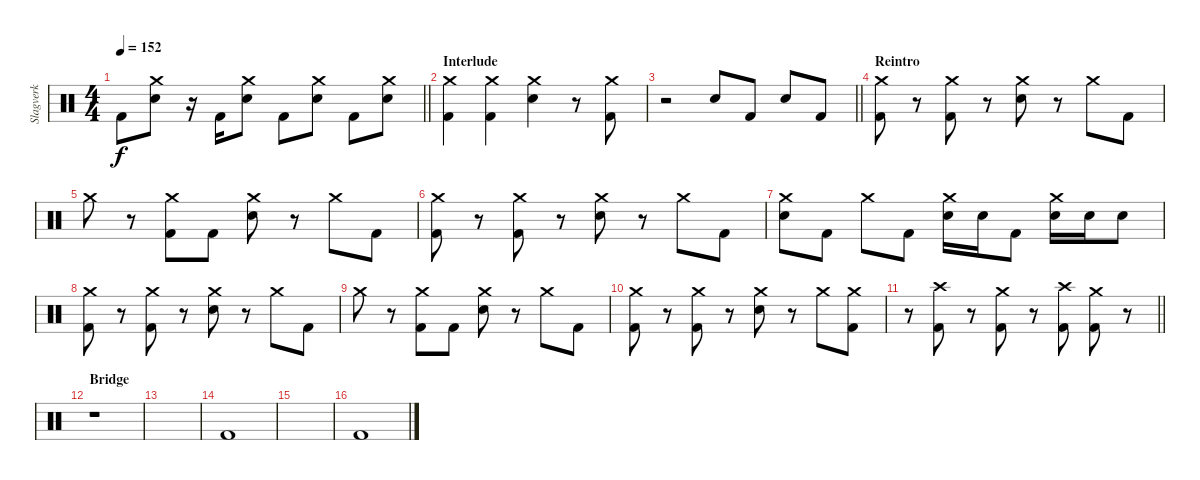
\track ("Slagverk" "Slagverk") {instrument percussion}
\staff
\articulation defaults
\ts (4 4)
\tempo 152
\clef neutral
\barLineRight lightlight
\ks c "Kick (hit) 2".8{dy f}
("Crash medium (hit)" "Electric Snare (hit)").8 r.16 "Kick (hit) 2".16 ("Crash medium (hit)" "Electric Snare (hit)").8 "Kick (hit) 2".8 ("Crash medium (hit)" "Electric Snare (hit)").8 "Kick (hit) 2".8 ("Crash medium (hit)" "Electric Snare (hit)").8 |
\section ("" "Interlude")
("Crash medium (hit)" "Kick (hit) 2").4 ("Crash medium (hit)" "Kick (hit) 2").4 ("Crash medium (hit)" "Electric Snare (hit)").4 r.8 ("Crash medium (hit)" "Kick (hit) 2").8 |
\barLineRight lightlight
r.2 "Electric Snare (hit)".8 "Kick (hit) 2".8 "Electric Snare (hit)".8 "Kick (hit) 2".8 |
\section ("" "Reintro")
("Crash medium (hit)" "Kick (hit) 2").8 r.8 ("Crash medium (hit)" "Kick (hit) 2").8 r.8 ("Crash medium (hit)" "Electric Snare (hit)").8 r.8 "Crash medium (hit)".8 "Kick (hit) 2".8 |
"Crash medium (hit)".8 r.8 ("Crash medium (hit)" "Kick (hit) 2").8 "Kick (hit) 2".8 ("Crash medium (hit)" "Electric Snare (hit)").8 r.8 "Crash medium (hit)".8 "Kick (hit) 2".8 |
("Crash medium (hit)" "Kick (hit) 2").8 r.8 ("Crash medium (hit)" "Kick (hit) 2").8 r.8 ("Crash medium (hit)" "Electric Snare (hit)").8 r.8 "Crash medium (hit)".8 "Kick (hit) 2".8 |
("Crash medium (hit)" "Electric Snare (hit)").8 "Kick (hit) 2".8 "Crash medium (hit)".8 "Kick (hit) 2".8 ("Crash medium (hit)" "Electric Snare (hit)").16 "Electric Snare (hit)".16 "Kick (hit) 2".8 ("Crash medium (hit)" "Electric Snare (hit)").16 "Electric Snare (hit)".16 "Electric Snare (hit)".8 |
("Crash medium (hit)" "Kick (hit) 2").8 r.8 ("Crash medium (hit)" "Kick (hit) 2").8 r.8 ("Crash medium (hit)" "Electric Snare (hit)").8 r.8 "Crash medium (hit)".8 "Kick (hit) 2".8 |
"Crash medium (hit)".8 r.8 ("Crash medium (hit)" "Kick (hit) 2").8 "Kick (hit) 2".8 ("Crash medium (hit)" "Electric Snare (hit)").8 r.8 "Crash medium (hit)".8 "Kick (hit) 2".8 |
("Crash medium (hit)" "Kick (hit) 2").8 r.8 ("Crash medium (hit)" "Kick (hit) 2").8 r.8 ("Crash medium (hit)" "Electric Snare (hit)").8 r.8 "Crash medium (hit)".8 ("Crash medium (hit)" "Kick (hit) 2").8 |
\barLineRight lightlight
r.8 ("Crash high (hit)" "Kick (hit) 2").8 r.8 ("Crash medium (hit)" "Kick (hit) 2").8 r.8 ("Crash high (hit)" "Kick (hit) 2").8 ("Crash medium (hit)" "Kick (hit) 2").8 r.8 |
\section ("" "Bridge")
r.1 |
|
"Kick (hit) 2".1 |
|
"Kick (hit) 2".1
